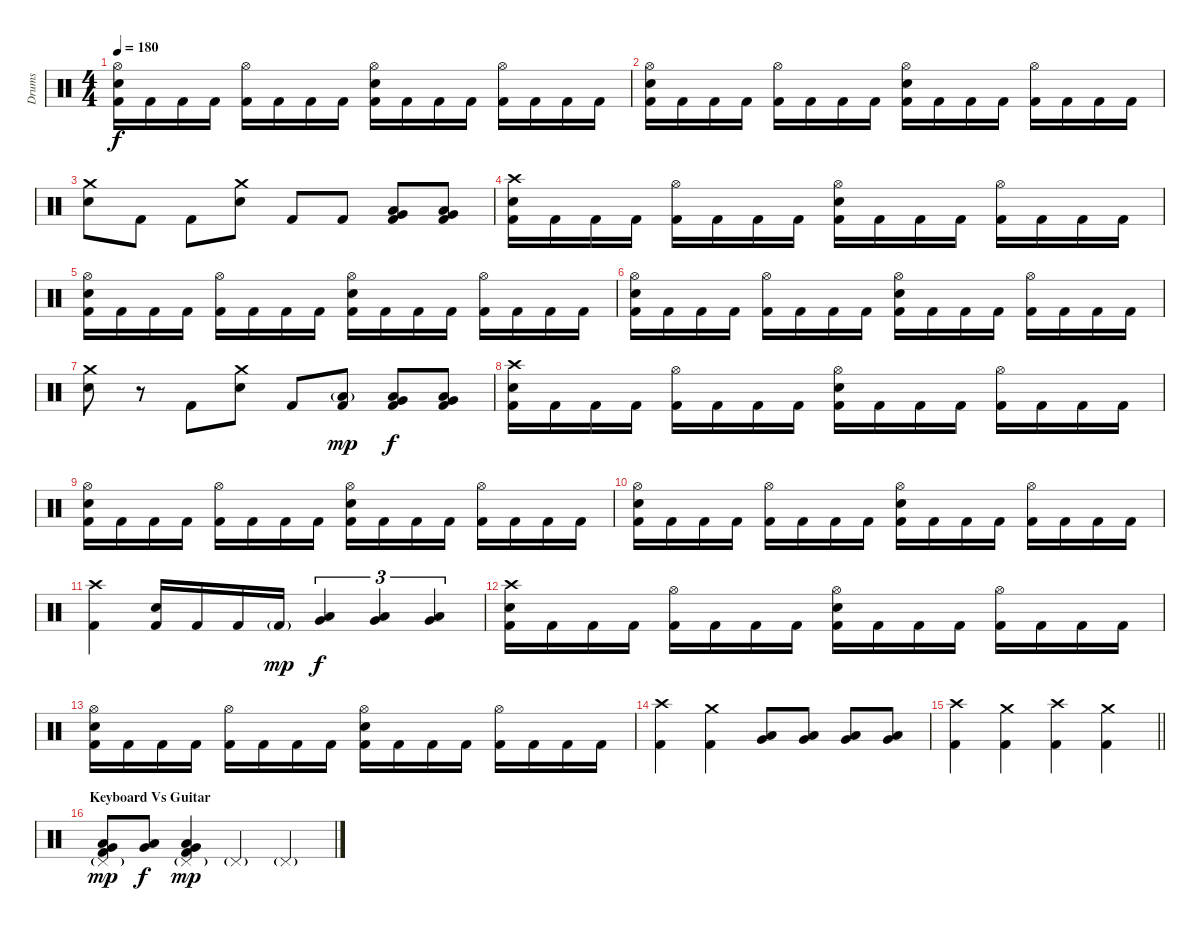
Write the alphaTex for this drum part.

\track ("Drums" "Drums") {instrument percussion}
\staff {score}
\articulation defaults
\ts (4 4)
\tempo 180
\clef neutral
\ks c
("Hi-Hat (open)" "Electric Snare (hit)" "Kick (hit) 2").16{dy f} "Kick (hit) 2".16 "Kick (hit) 2".16 "Kick (hit) 2".16 ("Hi-Hat (open)" "Kick (hit) 2").16 "Kick (hit) 2".16 "Kick (hit) 2".16 "Kick (hit) 2".16 ("Hi-Hat (open)" "Electric Snare (hit)" "Kick (hit) 2").16 "Kick (hit) 2".16 "Kick (hit) 2".16 "Kick (hit) 2".16 ("Hi-Hat (open)" "Kick (hit) 2").16 "Kick (hit) 2".16 "Kick (hit) 2".16 "Kick (hit) 2".16 |
("Hi-Hat (open)" "Electric Snare (hit)" "Kick (hit) 2").16 "Kick (hit) 2".16 "Kick (hit) 2".16 "Kick (hit) 2".16 ("Hi-Hat (open)" "Kick (hit) 2").16 "Kick (hit) 2".16 "Kick (hit) 2".16 "Kick (hit) 2".16 ("Hi-Hat (open)" "Electric Snare (hit)" "Kick (hit) 2").16 "Kick (hit) 2".16 "Kick (hit) 2".16 "Kick (hit) 2".16 ("Hi-Hat (open)" "Kick (hit) 2").16 "Kick (hit) 2".16 "Kick (hit) 2".16 "Kick (hit) 2".16 |
("Crash medium (hit)" "Electric Snare (hit)").8 "Kick (hit) 2".8 "Kick (hit) 2".8 ("Crash medium (hit)" "Electric Snare (hit)").8 "Kick (hit) 2".8 "Kick (hit) 2".8 ("Low Tom (hit)" "Very Low Tom (hit)" "Kick (hit) 2").8 ("Very Low Tom (hit)" "Low Floor Tom (hit)" "Kick (hit) 2").8 |
("Crash high (hit)" "Electric Snare (hit)" "Kick (hit) 2").16 "Kick (hit) 2".16 "Kick (hit) 2".16 "Kick (hit) 2".16 ("Hi-Hat (open)" "Kick (hit) 2").16 "Kick (hit) 2".16 "Kick (hit) 2".16 "Kick (hit) 2".16 ("Hi-Hat (open)" "Electric Snare (hit)" "Kick (hit) 2").16 "Kick (hit) 2".16 "Kick (hit) 2".16 "Kick (hit) 2".16 ("Hi-Hat (open)" "Kick (hit) 2").16 "Kick (hit) 2".16 "Kick (hit) 2".16 "Kick (hit) 2".16 |
("Hi-Hat (open)" "Electric Snare (hit)" "Kick (hit) 2").16 "Kick (hit) 2".16 "Kick (hit) 2".16 "Kick (hit) 2".16 ("Hi-Hat (open)" "Kick (hit) 2").16 "Kick (hit) 2".16 "Kick (hit) 2".16 "Kick (hit) 2".16 ("Hi-Hat (open)" "Electric Snare (hit)" "Kick (hit) 2").16 "Kick (hit) 2".16 "Kick (hit) 2".16 "Kick (hit) 2".16 ("Hi-Hat (open)" "Kick (hit) 2").16 "Kick (hit) 2".16 "Kick (hit) 2".16 "Kick (hit) 2".16 |
("Hi-Hat (open)" "Electric Snare (hit)" "Kick (hit) 2").16 "Kick (hit) 2".16 "Kick (hit) 2".16 "Kick (hit) 2".16 ("Hi-Hat (open)" "Kick (hit) 2").16 "Kick (hit) 2".16 "Kick (hit) 2".16 "Kick (hit) 2".16 ("Hi-Hat (open)" "Electric Snare (hit)" "Kick (hit) 2").16 "Kick (hit) 2".16 "Kick (hit) 2".16 "Kick (hit) 2".16 ("Hi-Hat (open)" "Kick (hit) 2").16 "Kick (hit) 2".16 "Kick (hit) 2".16 "Kick (hit) 2".16 |
("Crash medium (hit)" "Electric Snare (hit)").8 r.8 "Kick (hit) 2".8 ("Crash medium (hit)" "Electric Snare (hit)").8 "Kick (hit) 2".8 ("Low Tom (hit)"{g} "Kick (hit) 2").8{dy mp} ("Low Tom (hit)" "Very Low Tom (hit)" "Kick (hit) 2").8{dy f} ("Very Low Tom (hit)" "Low Floor Tom (hit)" "Kick (hit) 2").8 |
("Crash high (hit)" "Electric Snare (hit)" "Kick (hit) 2").16 "Kick (hit) 2".16 "Kick (hit) 2".16 "Kick (hit) 2".16 ("Hi-Hat (open)" "Kick (hit) 2").16 "Kick (hit) 2".16 "Kick (hit) 2".16 "Kick (hit) 2".16 ("Hi-Hat (open)" "Electric Snare (hit)" "Kick (hit) 2").16 "Kick (hit) 2".16 "Kick (hit) 2".16 "Kick (hit) 2".16 ("Hi-Hat (open)" "Kick (hit) 2").16 "Kick (hit) 2".16 "Kick (hit) 2".16 "Kick (hit) 2".16 |
("Hi-Hat (open)" "Electric Snare (hit)" "Kick (hit) 2").16 "Kick (hit) 2".16 "Kick (hit) 2".16 "Kick (hit) 2".16 ("Hi-Hat (open)" "Kick (hit) 2").16 "Kick (hit) 2".16 "Kick (hit) 2".16 "Kick (hit) 2".16 ("Hi-Hat (open)" "Electric Snare (hit)" "Kick (hit) 2").16 "Kick (hit) 2".16 "Kick (hit) 2".16 "Kick (hit) 2".16 ("Hi-Hat (open)" "Kick (hit) 2").16 "Kick (hit) 2".16 "Kick (hit) 2".16 "Kick (hit) 2".16 |
("Hi-Hat (open)" "Electric Snare (hit)" "Kick (hit) 2").16 "Kick (hit) 2".16 "Kick (hit) 2".16 "Kick (hit) 2".16 ("Hi-Hat (open)" "Kick (hit) 2").16 "Kick (hit) 2".16 "Kick (hit) 2".16 "Kick (hit) 2".16 ("Hi-Hat (open)" "Electric Snare (hit)" "Kick (hit) 2").16 "Kick (hit) 2".16 "Kick (hit) 2".16 "Kick (hit) 2".16 ("Hi-Hat (open)" "Kick (hit) 2").16 "Kick (hit) 2".16 "Kick (hit) 2".16 "Kick (hit) 2".16 |
("Crash high (hit)" "Kick (hit) 2").4 ("Electric Snare (hit)" "Kick (hit) 2").16 "Kick (hit) 2".16 "Kick (hit) 2".16 "Kick (hit) 2"{g}.16{dy mp} ("Low Tom (hit)" "Very Low Tom (hit)").4{tu (3 2) dy f} ("Low Tom (hit)" "Very Low Tom (hit)").4{tu (3 2)} ("Very Low Tom (hit)" "Low Floor Tom (hit)").4{tu (3 2)} |
("Crash high (hit)" "Electric Snare (hit)" "Kick (hit) 2").16 "Kick (hit) 2".16 "Kick (hit) 2".16 "Kick (hit) 2".16 ("Hi-Hat (open)" "Kick (hit) 2").16 "Kick (hit) 2".16 "Kick (hit) 2".16 "Kick (hit) 2".16 ("Hi-Hat (open)" "Electric Snare (hit)" "Kick (hit) 2").16 "Kick (hit) 2".16 "Kick (hit) 2".16 "Kick (hit) 2".16 ("Hi-Hat (open)" "Kick (hit) 2").16 "Kick (hit) 2".16 "Kick (hit) 2".16 "Kick (hit) 2".16 |
("Hi-Hat (open)" "Electric Snare (hit)" "Kick (hit) 2").16 "Kick (hit) 2".16 "Kick (hit) 2".16 "Kick (hit) 2".16 ("Hi-Hat (open)" "Kick (hit) 2").16 "Kick (hit) 2".16 "Kick (hit) 2".16 "Kick (hit) 2".16 ("Hi-Hat (open)" "Electric Snare (hit)" "Kick (hit) 2").16 "Kick (hit) 2".16 "Kick (hit) 2".16 "Kick (hit) 2".16 ("Hi-Hat (open)" "Kick (hit) 2").16 "Kick (hit) 2".16 "Kick (hit) 2".16 "Kick (hit) 2".16 |
("Crash high (hit)" "Kick (hit) 2").4 ("Crash medium (hit)" "Kick (hit) 2").4 ("Low Tom (hit)" "Very Low Tom (hit)").8 ("Low Tom (hit)" "Very Low Tom (hit)").8 ("Low Tom (hit)" "Very Low Tom (hit)").8 ("Low Tom (hit)" "Very Low Tom (hit)").8 |
\barLineRight lightlight
("Crash high (hit)" "Kick (hit) 2").4 ("Crash medium (hit)" "Kick (hit) 2").4 ("Crash high (hit)" "Kick (hit) 2").4 ("Crash medium (hit)" "Kick (hit) 2").4 |
\section ("" "Keyboard Vs Guitar")
("Low Tom (hit)" "Very Low Tom (hit)" "Pedal Hi-Hat (hit)"{g} "Kick (hit) 2").8{dy mp} ("Low Tom (hit)" "Very Low Tom (hit)").8{dy f} ("Low Tom (hit)" "Very Low Tom (hit)" "Pedal Hi-Hat (hit)"{g} "Kick (hit) 2").4{dy mp} "Pedal Hi-Hat (hit)"{g}.4 "Pedal Hi-Hat (hit)"{g}.4
